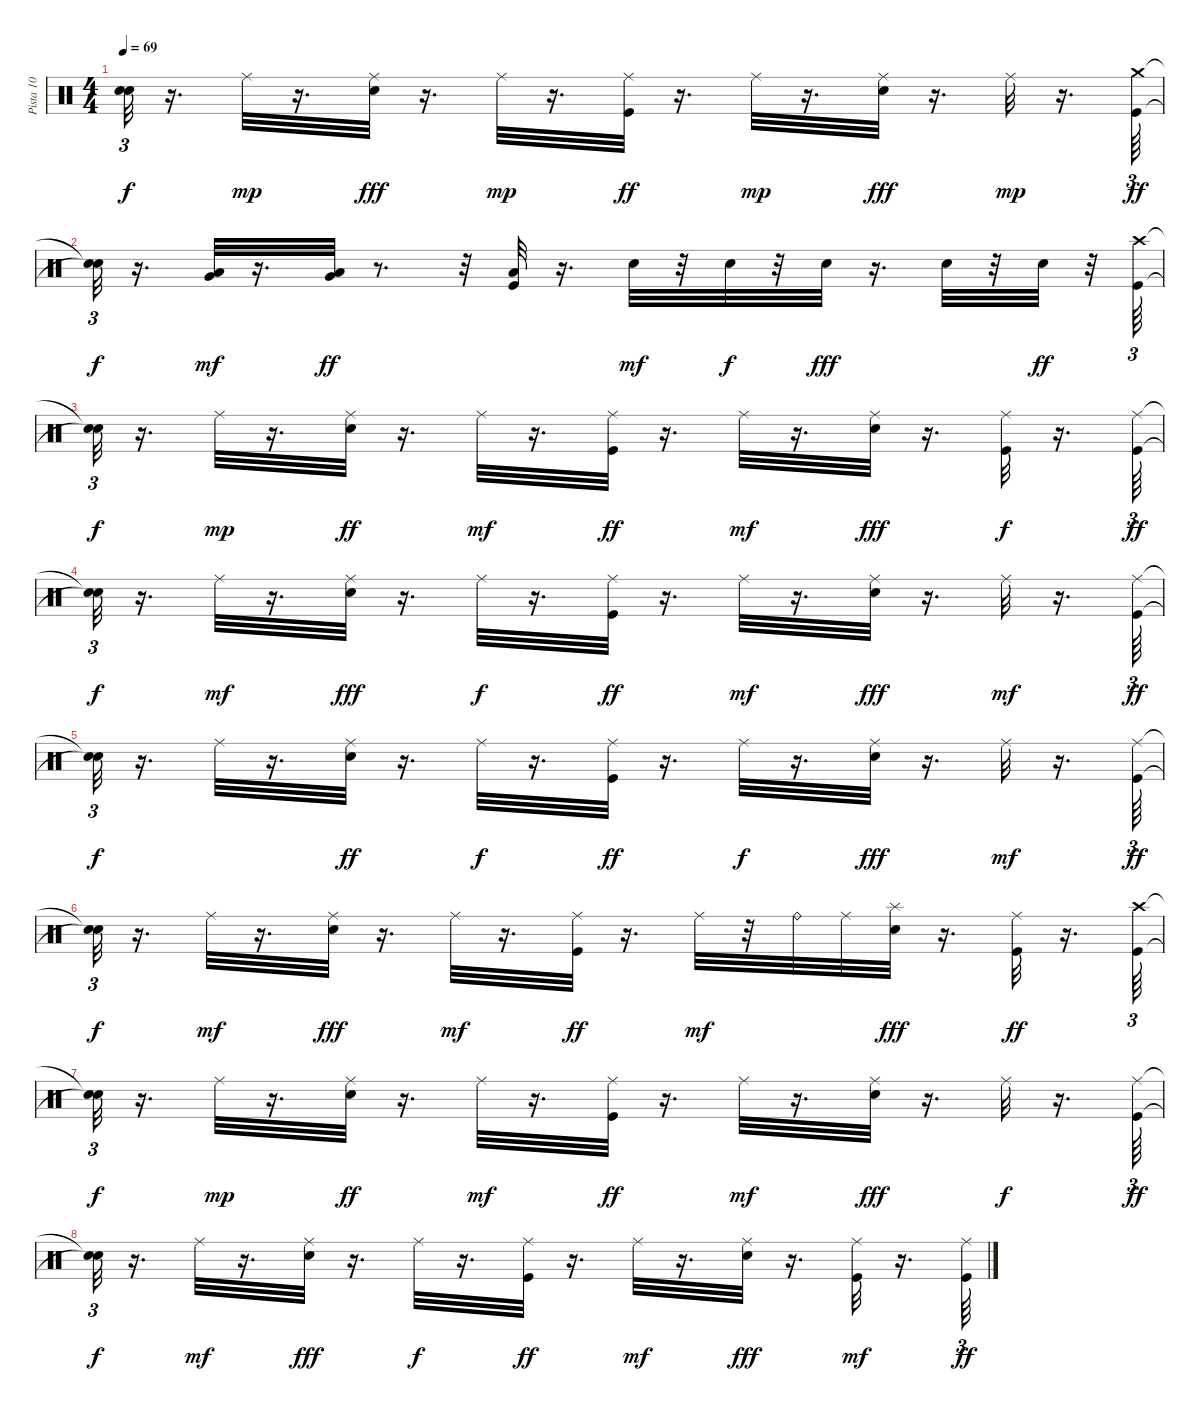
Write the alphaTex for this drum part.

\track ("Pista 10" "Pista 10") {instrument percussion}
\staff {score}
\articulation defaults
\ts (4 4)
\tempo 69
\clef neutral
\ks c
("Snare (hit)"{t} "Snare (hit)"{t}).32{tu (3 2) dy f} r.16{d} "Ride (middle)".32{dy mp} r.16{d} ("Ride (middle)" "Snare (hit) 2").32{dy fff} r.16{d} "Ride (middle)".32{dy mp} r.16{d} ("Ride (middle)" "Kick (hit)").32{dy ff} r.16{d} "Ride (middle)".32{dy mp} r.16{d} ("Ride (middle)" "Snare (hit) 2").32{dy fff} r.16{d} "Ride (middle)".32{dy mp} r.16{d} ("Crash medium (hit)" "Kick (hit)").64{tu (3 2) dy ff} |
("Snare (hit)"{t} "Snare (hit)"{t}).32{tu (3 2) dy f} r.16{d} ("Very Low Tom (hit)" "Low Tom (hit)").32{dy mf} r.16{d} ("Very Low Tom (hit)" "Low Tom (hit)").32{dy ff} r.8{d} r.32 ("Low Floor Tom (hit)" "Kick (hit)").32 r.16{d} "Snare (hit) 2".32{dy mf} r.32 "Snare (hit) 2".32{dy f} r.32 "Snare (hit) 2".32{dy fff} r.16{d} "Snare (hit) 2".32 r.32 "Snare (hit) 2".32{dy ff} r.32 ("Crash high (hit)" "Kick (hit)").64{tu (3 2)} |
("Snare (hit)"{t} "Snare (hit)"{t}).32{tu (3 2) dy f} r.16{d} "Ride (middle)".32{dy mp} r.16{d} ("Snare (hit) 2" "Ride (middle)").32{dy ff} r.16{d} "Ride (middle)".32{dy mf} r.16{d} ("Ride (middle)" "Kick (hit)").32{dy ff} r.16{d} "Ride (middle)".32{dy mf} r.16{d} ("Ride (middle)" "Snare (hit) 2").32{dy fff} r.16{d} ("Ride (middle)" "Kick (hit)").32{dy f} r.16{d} ("Ride (middle)" "Kick (hit)").64{tu (3 2) dy ff} |
("Snare (hit)"{t} "Snare (hit)"{t}).32{tu (3 2) dy f} r.16{d} "Ride (middle)".32{dy mf} r.16{d} ("Ride (middle)" "Snare (hit) 2").32{dy fff} r.16{d} "Ride (middle)".32{dy f} r.16{d} ("Ride (middle)" "Kick (hit)").32{dy ff} r.16{d} "Ride (middle)".32{dy mf} r.16{d} ("Ride (middle)" "Snare (hit) 2").32{dy fff} r.16{d} "Ride (middle)".32{dy mf} r.16{d} ("Ride (middle)" "Kick (hit)").64{tu (3 2) dy ff} |
("Snare (hit)"{t} "Snare (hit)"{t}).32{tu (3 2) dy f} r.16{d} "Ride (middle)".32 r.16{d} ("Snare (hit) 2" "Ride (middle)").32{dy ff} r.16{d} "Ride (middle)".32{dy f} r.16{d} ("Ride (middle)" "Kick (hit)").32{dy ff} r.16{d} "Ride (middle)".32{dy f} r.16{d} ("Ride (middle)" "Snare (hit) 2").32{dy fff} r.16{d} "Ride (middle)".32{dy mf} r.16{d} ("Ride (middle)" "Kick (hit)").64{tu (3 2) dy ff} |
("Snare (hit)"{t} "Snare (hit)"{t}).32{tu (3 2) dy f} r.16{d} "Ride (middle)".32{dy mf} r.16{d} ("Ride (middle)" "Snare (hit) 2").32{dy fff} r.16{d} "Ride (middle)".32{dy mf} r.16{d} ("Ride (middle)" "Kick (hit)").32{dy ff} r.16{d} "Ride (middle)".32{dy mf} r.32 "Ride (bell)".32 "Ride (middle)".32 ("Splash (hit)" "Snare (hit) 2").32{dy fff} r.16{d} ("Ride (middle)" "Kick (hit)").32{dy ff} r.16{d} ("Crash high (hit)" "Kick (hit)").64{tu (3 2)} |
("Snare (hit)"{t} "Snare (hit)"{t}).32{tu (3 2) dy f} r.16{d} "Ride (middle)".32{dy mp} r.16{d} ("Snare (hit) 2" "Ride (middle)").32{dy ff} r.16{d} "Ride (middle)".32{dy mf} r.16{d} ("Ride (middle)" "Kick (hit)").32{dy ff} r.16{d} "Ride (middle)".32{dy mf} r.16{d} ("Ride (middle)" "Snare (hit) 2").32{dy fff} r.16{d} "Ride (middle)".32{dy f} r.16{d} ("Ride (middle)" "Kick (hit)").64{tu (3 2) dy ff} |
("Snare (hit)"{t} "Snare (hit)"{t}).32{tu (3 2) dy f} r.16{d} "Ride (middle)".32{dy mf} r.16{d} ("Ride (middle)" "Snare (hit) 2").32{dy fff} r.16{d} "Ride (middle)".32{dy f} r.16{d} ("Ride (middle)" "Kick (hit)").32{dy ff} r.16{d} "Ride (middle)".32{dy mf} r.16{d} ("Ride (middle)" "Snare (hit) 2").32{dy fff} r.16{d} ("Ride (middle)" "Kick (hit)").32{dy mf} r.16{d} ("Ride (middle)" "Kick (hit)").64{tu (3 2) dy ff}
